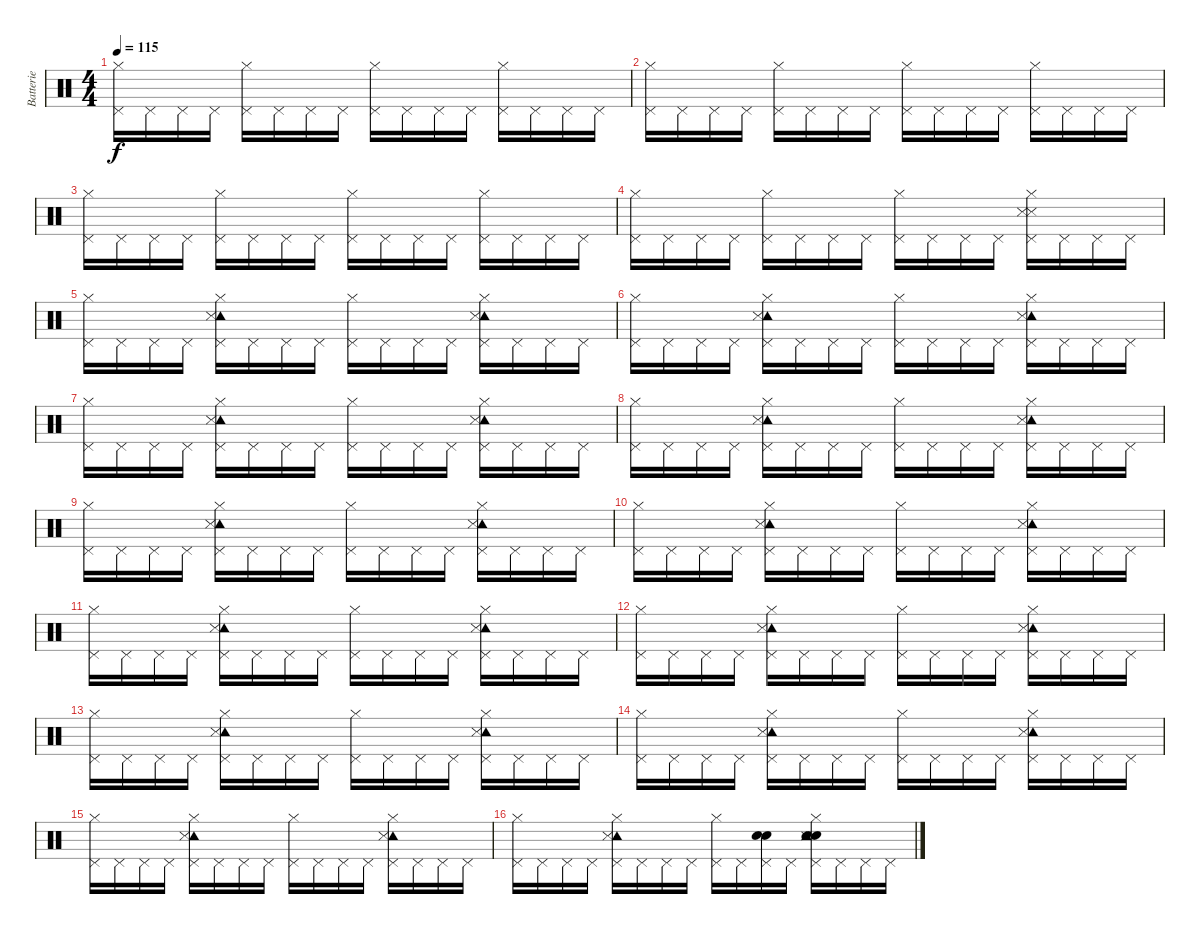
\track ("Batterie" "Batterie") {instrument percussion}
\staff {score}
\articulation defaults
\ts (4 4)
\tempo 115
\clef neutral
\ks c
("Hi-Hat (closed)" "Pedal Hi-Hat (hit)").16{dy f} "Pedal Hi-Hat (hit)".16 "Pedal Hi-Hat (hit)".16 "Pedal Hi-Hat (hit)".16 ("Hi-Hat (closed)" "Pedal Hi-Hat (hit)").16 "Pedal Hi-Hat (hit)".16 "Pedal Hi-Hat (hit)".16 "Pedal Hi-Hat (hit)".16 ("Hi-Hat (closed)" "Pedal Hi-Hat (hit)").16 "Pedal Hi-Hat (hit)".16 "Pedal Hi-Hat (hit)".16 "Pedal Hi-Hat (hit)".16 ("Hi-Hat (closed)" "Pedal Hi-Hat (hit)").16 "Pedal Hi-Hat (hit)".16 "Pedal Hi-Hat (hit)".16 "Pedal Hi-Hat (hit)".16 |
("Hi-Hat (closed)" "Pedal Hi-Hat (hit)").16 "Pedal Hi-Hat (hit)".16 "Pedal Hi-Hat (hit)".16 "Pedal Hi-Hat (hit)".16 ("Hi-Hat (closed)" "Pedal Hi-Hat (hit)").16 "Pedal Hi-Hat (hit)".16 "Pedal Hi-Hat (hit)".16 "Pedal Hi-Hat (hit)".16 ("Hi-Hat (closed)" "Pedal Hi-Hat (hit)").16 "Pedal Hi-Hat (hit)".16 "Pedal Hi-Hat (hit)".16 "Pedal Hi-Hat (hit)".16 ("Hi-Hat (closed)" "Pedal Hi-Hat (hit)").16 "Pedal Hi-Hat (hit)".16 "Pedal Hi-Hat (hit)".16 "Pedal Hi-Hat (hit)".16 |
("Hi-Hat (closed)" "Pedal Hi-Hat (hit)").16 "Pedal Hi-Hat (hit)".16 "Pedal Hi-Hat (hit)".16 "Pedal Hi-Hat (hit)".16 ("Hi-Hat (closed)" "Pedal Hi-Hat (hit)").16 "Pedal Hi-Hat (hit)".16 "Pedal Hi-Hat (hit)".16 "Pedal Hi-Hat (hit)".16 ("Hi-Hat (closed)" "Pedal Hi-Hat (hit)").16 "Pedal Hi-Hat (hit)".16 "Pedal Hi-Hat (hit)".16 "Pedal Hi-Hat (hit)".16 ("Hi-Hat (closed)" "Pedal Hi-Hat (hit)").16 "Pedal Hi-Hat (hit)".16 "Pedal Hi-Hat (hit)".16 "Pedal Hi-Hat (hit)".16 |
("Hi-Hat (closed)" "Pedal Hi-Hat (hit)").16 "Pedal Hi-Hat (hit)".16 "Pedal Hi-Hat (hit)".16 "Pedal Hi-Hat (hit)".16 ("Hi-Hat (closed)" "Pedal Hi-Hat (hit)").16 "Pedal Hi-Hat (hit)".16 "Pedal Hi-Hat (hit)".16 "Pedal Hi-Hat (hit)".16 ("Hi-Hat (closed)" "Pedal Hi-Hat (hit)").16 "Pedal Hi-Hat (hit)".16 "Pedal Hi-Hat (hit)".16 "Pedal Hi-Hat (hit)".16 ("Snare (side stick) 3" "Metronome (hit)" "Hi-Hat (closed)" "Pedal Hi-Hat (hit)").16 "Pedal Hi-Hat (hit)".16 "Pedal Hi-Hat (hit)".16 "Pedal Hi-Hat (hit)".16 |
("Hi-Hat (closed)" "Pedal Hi-Hat (hit)").16 "Pedal Hi-Hat (hit)".16 "Pedal Hi-Hat (hit)".16 "Pedal Hi-Hat (hit)".16 ("Tambourine (hit)" "Snare (side stick) 3" "Hi-Hat (closed)" "Pedal Hi-Hat (hit)").16 "Pedal Hi-Hat (hit)".16 "Pedal Hi-Hat (hit)".16 "Pedal Hi-Hat (hit)".16 ("Hi-Hat (closed)" "Pedal Hi-Hat (hit)").16 "Pedal Hi-Hat (hit)".16 "Pedal Hi-Hat (hit)".16 "Pedal Hi-Hat (hit)".16 ("Tambourine (hit)" "Snare (side stick) 3" "Hi-Hat (closed)" "Pedal Hi-Hat (hit)").16 "Pedal Hi-Hat (hit)".16 "Pedal Hi-Hat (hit)".16 "Pedal Hi-Hat (hit)".16 |
("Hi-Hat (closed)" "Pedal Hi-Hat (hit)").16 "Pedal Hi-Hat (hit)".16 "Pedal Hi-Hat (hit)".16 "Pedal Hi-Hat (hit)".16 ("Tambourine (hit)" "Snare (side stick) 3" "Hi-Hat (closed)" "Pedal Hi-Hat (hit)").16 "Pedal Hi-Hat (hit)".16 "Pedal Hi-Hat (hit)".16 "Pedal Hi-Hat (hit)".16 ("Hi-Hat (closed)" "Pedal Hi-Hat (hit)").16 "Pedal Hi-Hat (hit)".16 "Pedal Hi-Hat (hit)".16 "Pedal Hi-Hat (hit)".16 ("Tambourine (hit)" "Snare (side stick) 3" "Hi-Hat (closed)" "Pedal Hi-Hat (hit)").16 "Pedal Hi-Hat (hit)".16 "Pedal Hi-Hat (hit)".16 "Pedal Hi-Hat (hit)".16 |
("Hi-Hat (closed)" "Pedal Hi-Hat (hit)").16 "Pedal Hi-Hat (hit)".16 "Pedal Hi-Hat (hit)".16 "Pedal Hi-Hat (hit)".16 ("Tambourine (hit)" "Snare (side stick) 3" "Hi-Hat (closed)" "Pedal Hi-Hat (hit)").16 "Pedal Hi-Hat (hit)".16 "Pedal Hi-Hat (hit)".16 "Pedal Hi-Hat (hit)".16 ("Hi-Hat (closed)" "Pedal Hi-Hat (hit)").16 "Pedal Hi-Hat (hit)".16 "Pedal Hi-Hat (hit)".16 "Pedal Hi-Hat (hit)".16 ("Tambourine (hit)" "Snare (side stick) 3" "Hi-Hat (closed)" "Pedal Hi-Hat (hit)").16 "Pedal Hi-Hat (hit)".16 "Pedal Hi-Hat (hit)".16 "Pedal Hi-Hat (hit)".16 |
("Hi-Hat (closed)" "Pedal Hi-Hat (hit)").16 "Pedal Hi-Hat (hit)".16 "Pedal Hi-Hat (hit)".16 "Pedal Hi-Hat (hit)".16 ("Tambourine (hit)" "Snare (side stick) 3" "Hi-Hat (closed)" "Pedal Hi-Hat (hit)").16 "Pedal Hi-Hat (hit)".16 "Pedal Hi-Hat (hit)".16 "Pedal Hi-Hat (hit)".16 ("Hi-Hat (closed)" "Pedal Hi-Hat (hit)").16 "Pedal Hi-Hat (hit)".16 "Pedal Hi-Hat (hit)".16 "Pedal Hi-Hat (hit)".16 ("Tambourine (hit)" "Snare (side stick) 3" "Hi-Hat (closed)" "Pedal Hi-Hat (hit)").16 "Pedal Hi-Hat (hit)".16 "Pedal Hi-Hat (hit)".16 "Pedal Hi-Hat (hit)".16 |
("Hi-Hat (closed)" "Pedal Hi-Hat (hit)").16 "Pedal Hi-Hat (hit)".16 "Pedal Hi-Hat (hit)".16 "Pedal Hi-Hat (hit)".16 ("Tambourine (hit)" "Snare (side stick) 3" "Hi-Hat (closed)" "Pedal Hi-Hat (hit)").16 "Pedal Hi-Hat (hit)".16 "Pedal Hi-Hat (hit)".16 "Pedal Hi-Hat (hit)".16 ("Hi-Hat (closed)" "Pedal Hi-Hat (hit)").16 "Pedal Hi-Hat (hit)".16 "Pedal Hi-Hat (hit)".16 "Pedal Hi-Hat (hit)".16 ("Tambourine (hit)" "Snare (side stick) 3" "Hi-Hat (closed)" "Pedal Hi-Hat (hit)").16 "Pedal Hi-Hat (hit)".16 "Pedal Hi-Hat (hit)".16 "Pedal Hi-Hat (hit)".16 |
("Hi-Hat (closed)" "Pedal Hi-Hat (hit)").16 "Pedal Hi-Hat (hit)".16 "Pedal Hi-Hat (hit)".16 "Pedal Hi-Hat (hit)".16 ("Tambourine (hit)" "Snare (side stick) 3" "Hi-Hat (closed)" "Pedal Hi-Hat (hit)").16 "Pedal Hi-Hat (hit)".16 "Pedal Hi-Hat (hit)".16 "Pedal Hi-Hat (hit)".16 ("Hi-Hat (closed)" "Pedal Hi-Hat (hit)").16 "Pedal Hi-Hat (hit)".16 "Pedal Hi-Hat (hit)".16 "Pedal Hi-Hat (hit)".16 ("Tambourine (hit)" "Snare (side stick) 3" "Hi-Hat (closed)" "Pedal Hi-Hat (hit)").16 "Pedal Hi-Hat (hit)".16 "Pedal Hi-Hat (hit)".16 "Pedal Hi-Hat (hit)".16 |
("Hi-Hat (closed)" "Pedal Hi-Hat (hit)").16 "Pedal Hi-Hat (hit)".16 "Pedal Hi-Hat (hit)".16 "Pedal Hi-Hat (hit)".16 ("Tambourine (hit)" "Snare (side stick) 3" "Hi-Hat (closed)" "Pedal Hi-Hat (hit)").16 "Pedal Hi-Hat (hit)".16 "Pedal Hi-Hat (hit)".16 "Pedal Hi-Hat (hit)".16 ("Hi-Hat (closed)" "Pedal Hi-Hat (hit)").16 "Pedal Hi-Hat (hit)".16 "Pedal Hi-Hat (hit)".16 "Pedal Hi-Hat (hit)".16 ("Tambourine (hit)" "Snare (side stick) 3" "Hi-Hat (closed)" "Pedal Hi-Hat (hit)").16 "Pedal Hi-Hat (hit)".16 "Pedal Hi-Hat (hit)".16 "Pedal Hi-Hat (hit)".16 |
("Hi-Hat (closed)" "Pedal Hi-Hat (hit)").16 "Pedal Hi-Hat (hit)".16 "Pedal Hi-Hat (hit)".16 "Pedal Hi-Hat (hit)".16 ("Tambourine (hit)" "Snare (side stick) 3" "Hi-Hat (closed)" "Pedal Hi-Hat (hit)").16 "Pedal Hi-Hat (hit)".16 "Pedal Hi-Hat (hit)".16 "Pedal Hi-Hat (hit)".16 ("Hi-Hat (closed)" "Pedal Hi-Hat (hit)").16 "Pedal Hi-Hat (hit)".16 "Pedal Hi-Hat (hit)".16 "Pedal Hi-Hat (hit)".16 ("Tambourine (hit)" "Snare (side stick) 3" "Hi-Hat (closed)" "Pedal Hi-Hat (hit)").16 "Pedal Hi-Hat (hit)".16 "Pedal Hi-Hat (hit)".16 "Pedal Hi-Hat (hit)".16 |
("Hi-Hat (closed)" "Pedal Hi-Hat (hit)").16 "Pedal Hi-Hat (hit)".16 "Pedal Hi-Hat (hit)".16 "Pedal Hi-Hat (hit)".16 ("Tambourine (hit)" "Snare (side stick) 3" "Hi-Hat (closed)" "Pedal Hi-Hat (hit)").16 "Pedal Hi-Hat (hit)".16 "Pedal Hi-Hat (hit)".16 "Pedal Hi-Hat (hit)".16 ("Hi-Hat (closed)" "Pedal Hi-Hat (hit)").16 "Pedal Hi-Hat (hit)".16 "Pedal Hi-Hat (hit)".16 "Pedal Hi-Hat (hit)".16 ("Tambourine (hit)" "Snare (side stick) 3" "Hi-Hat (closed)" "Pedal Hi-Hat (hit)").16 "Pedal Hi-Hat (hit)".16 "Pedal Hi-Hat (hit)".16 "Pedal Hi-Hat (hit)".16 |
("Hi-Hat (closed)" "Pedal Hi-Hat (hit)").16 "Pedal Hi-Hat (hit)".16 "Pedal Hi-Hat (hit)".16 "Pedal Hi-Hat (hit)".16 ("Tambourine (hit)" "Snare (side stick) 3" "Hi-Hat (closed)" "Pedal Hi-Hat (hit)").16 "Pedal Hi-Hat (hit)".16 "Pedal Hi-Hat (hit)".16 "Pedal Hi-Hat (hit)".16 ("Hi-Hat (closed)" "Pedal Hi-Hat (hit)").16 "Pedal Hi-Hat (hit)".16 "Pedal Hi-Hat (hit)".16 "Pedal Hi-Hat (hit)".16 ("Tambourine (hit)" "Snare (side stick) 3" "Hi-Hat (closed)" "Pedal Hi-Hat (hit)").16 "Pedal Hi-Hat (hit)".16 "Pedal Hi-Hat (hit)".16 "Pedal Hi-Hat (hit)".16 |
("Hi-Hat (closed)" "Pedal Hi-Hat (hit)").16 "Pedal Hi-Hat (hit)".16 "Pedal Hi-Hat (hit)".16 "Pedal Hi-Hat (hit)".16 ("Tambourine (hit)" "Snare (side stick) 3" "Hi-Hat (closed)" "Pedal Hi-Hat (hit)").16 "Pedal Hi-Hat (hit)".16 "Pedal Hi-Hat (hit)".16 "Pedal Hi-Hat (hit)".16 ("Hi-Hat (closed)" "Pedal Hi-Hat (hit)").16 "Pedal Hi-Hat (hit)".16 "Pedal Hi-Hat (hit)".16 "Pedal Hi-Hat (hit)".16 ("Tambourine (hit)" "Snare (side stick) 3" "Hi-Hat (closed)" "Pedal Hi-Hat (hit)").16 "Pedal Hi-Hat (hit)".16 "Pedal Hi-Hat (hit)".16 "Pedal Hi-Hat (hit)".16 |
("Hi-Hat (closed)" "Pedal Hi-Hat (hit)").16 "Pedal Hi-Hat (hit)".16 "Pedal Hi-Hat (hit)".16 "Pedal Hi-Hat (hit)".16 ("Tambourine (hit)" "Snare (side stick) 3" "Hi-Hat (closed)" "Pedal Hi-Hat (hit)").16 "Pedal Hi-Hat (hit)".16 "Pedal Hi-Hat (hit)".16 "Pedal Hi-Hat (hit)".16 ("Hi-Hat (closed)" "Pedal Hi-Hat (hit)").16 "Pedal Hi-Hat (hit)".16 ("Electric Snare (hit)" "Snare (hit) 2" "Pedal Hi-Hat (hit)").16 "Pedal Hi-Hat (hit)".16 ("Electric Snare (hit)" "Snare (hit) 2" "Tambourine (hit)" "Snare (side stick) 3" "Hi-Hat (closed)" "Pedal Hi-Hat (hit)").16 "Pedal Hi-Hat (hit)".16 "Pedal Hi-Hat (hit)".16 "Pedal Hi-Hat (hit)".16
